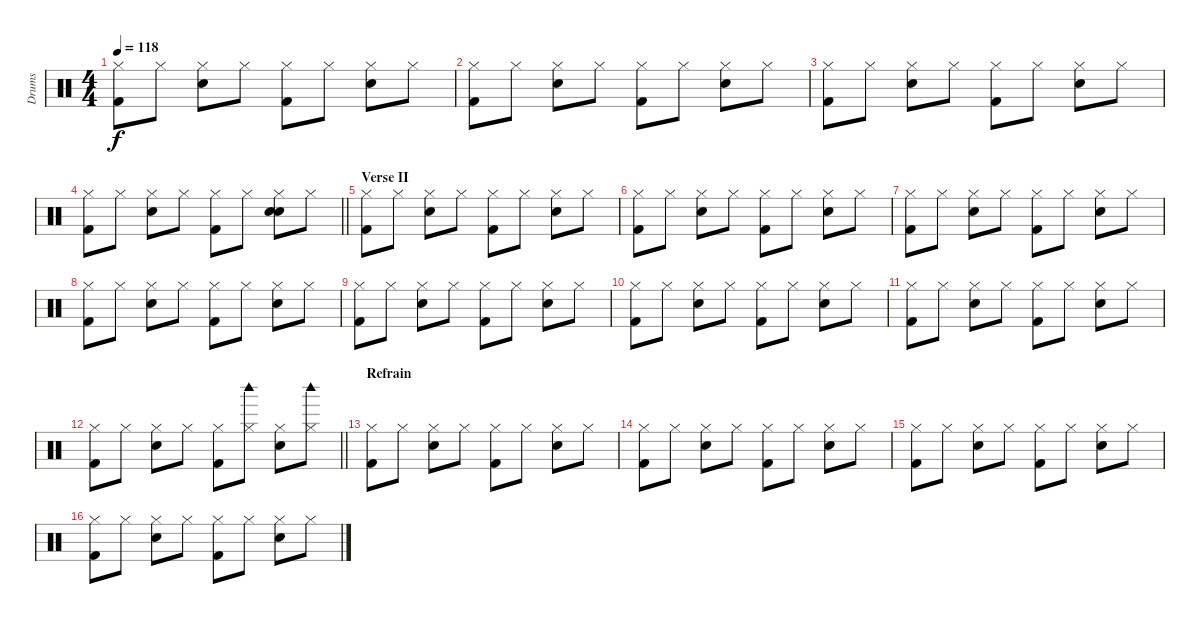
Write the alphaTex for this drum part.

\track ("Drums" "Drums") {instrument percussion}
\staff {score}
\articulation defaults
\ts (4 4)
\tempo 118
\clef neutral
\ks c
("Hi-Hat (closed)" "Kick (hit) 2").8{dy f} "Hi-Hat (closed)".8 ("Hi-Hat (closed)" "Snare (hit) 2").8 "Hi-Hat (closed)".8 ("Hi-Hat (closed)" "Kick (hit) 2").8 "Hi-Hat (closed)".8 ("Hi-Hat (closed)" "Snare (hit) 2").8 "Hi-Hat (closed)".8 |
("Hi-Hat (closed)" "Kick (hit) 2").8 "Hi-Hat (closed)".8 ("Hi-Hat (closed)" "Snare (hit) 2").8 "Hi-Hat (closed)".8 ("Hi-Hat (closed)" "Kick (hit) 2").8 "Hi-Hat (closed)".8 ("Hi-Hat (closed)" "Snare (hit) 2").8 "Hi-Hat (closed)".8 |
("Hi-Hat (closed)" "Kick (hit) 2").8 "Hi-Hat (closed)".8 ("Hi-Hat (closed)" "Snare (hit) 2").8 "Hi-Hat (closed)".8 ("Hi-Hat (closed)" "Kick (hit) 2").8 "Hi-Hat (closed)".8 ("Hi-Hat (closed)" "Snare (hit) 2").8 "Hi-Hat (closed)".8 |
\barLineRight lightlight
("Hi-Hat (closed)" "Kick (hit) 2").8 "Hi-Hat (closed)".8 ("Hi-Hat (closed)" "Snare (hit) 2").8 "Hi-Hat (closed)".8 ("Hi-Hat (closed)" "Kick (hit) 2").8 "Hi-Hat (closed)".8 ("Hi-Hat (closed)" "Hand Clap (hit)" "Snare (hit) 2").8 "Hi-Hat (closed)".8 |
\section ("" "Verse II")
("Hi-Hat (closed)" "Kick (hit) 2").8 "Hi-Hat (closed)".8 ("Hi-Hat (closed)" "Snare (hit) 2").8 "Hi-Hat (closed)".8 ("Hi-Hat (closed)" "Kick (hit) 2").8 "Hi-Hat (closed)".8 ("Hi-Hat (closed)" "Snare (hit) 2").8 "Hi-Hat (closed)".8 |
("Hi-Hat (closed)" "Kick (hit) 2").8 "Hi-Hat (closed)".8 ("Hi-Hat (closed)" "Snare (hit) 2").8 "Hi-Hat (closed)".8 ("Hi-Hat (closed)" "Kick (hit) 2").8 "Hi-Hat (closed)".8 ("Hi-Hat (closed)" "Snare (hit) 2").8 "Hi-Hat (closed)".8 |
("Hi-Hat (closed)" "Kick (hit) 2").8 "Hi-Hat (closed)".8 ("Hi-Hat (closed)" "Snare (hit) 2").8 "Hi-Hat (closed)".8 ("Hi-Hat (closed)" "Kick (hit) 2").8 "Hi-Hat (closed)".8 ("Hi-Hat (closed)" "Snare (hit) 2").8 "Hi-Hat (closed)".8 |
("Hi-Hat (closed)" "Kick (hit) 2").8 "Hi-Hat (closed)".8 ("Hi-Hat (closed)" "Snare (hit) 2").8 "Hi-Hat (closed)".8 ("Hi-Hat (closed)" "Kick (hit) 2").8 "Hi-Hat (closed)".8 ("Hi-Hat (closed)" "Snare (hit) 2").8 "Hi-Hat (closed)".8 |
("Hi-Hat (closed)" "Kick (hit) 2").8 "Hi-Hat (closed)".8 ("Hi-Hat (closed)" "Snare (hit) 2").8 "Hi-Hat (closed)".8 ("Hi-Hat (closed)" "Kick (hit) 2").8 "Hi-Hat (closed)".8 ("Hi-Hat (closed)" "Snare (hit) 2").8 "Hi-Hat (closed)".8 |
("Hi-Hat (closed)" "Kick (hit) 2").8 "Hi-Hat (closed)".8 ("Hi-Hat (closed)" "Snare (hit) 2").8 "Hi-Hat (closed)".8 ("Hi-Hat (closed)" "Kick (hit) 2").8 "Hi-Hat (closed)".8 ("Hi-Hat (closed)" "Snare (hit) 2").8 "Hi-Hat (closed)".8 |
("Hi-Hat (closed)" "Kick (hit) 2").8 "Hi-Hat (closed)".8 ("Hi-Hat (closed)" "Snare (hit) 2").8 "Hi-Hat (closed)".8 ("Hi-Hat (closed)" "Kick (hit) 2").8 "Hi-Hat (closed)".8 ("Hi-Hat (closed)" "Snare (hit) 2").8 "Hi-Hat (closed)".8 |
\barLineRight lightlight
("Hi-Hat (closed)" "Kick (hit) 2").8 "Hi-Hat (closed)".8 ("Hi-Hat (closed)" "Snare (hit) 2").8 "Hi-Hat (closed)".8 ("Hi-Hat (closed)" "Kick (hit) 2").8 ("Hi-Hat (closed)" "Woodblock high (hit)").8 ("Hi-Hat (closed)" "Snare (hit) 2").8 ("Hi-Hat (closed)" "Woodblock high (hit)").8 |
\section ("" "Refrain")
("Hi-Hat (closed)" "Kick (hit) 2").8 "Hi-Hat (closed)".8 ("Hi-Hat (closed)" "Snare (hit) 2").8 "Hi-Hat (closed)".8 ("Hi-Hat (closed)" "Kick (hit) 2").8 "Hi-Hat (closed)".8 ("Hi-Hat (closed)" "Snare (hit) 2").8 "Hi-Hat (closed)".8 |
("Hi-Hat (closed)" "Kick (hit) 2").8 "Hi-Hat (closed)".8 ("Hi-Hat (closed)" "Snare (hit) 2").8 "Hi-Hat (closed)".8 ("Hi-Hat (closed)" "Kick (hit) 2").8 "Hi-Hat (closed)".8 ("Hi-Hat (closed)" "Snare (hit) 2").8 "Hi-Hat (closed)".8 |
("Hi-Hat (closed)" "Kick (hit) 2").8 "Hi-Hat (closed)".8 ("Hi-Hat (closed)" "Snare (hit) 2").8 "Hi-Hat (closed)".8 ("Hi-Hat (closed)" "Kick (hit) 2").8 "Hi-Hat (closed)".8 ("Hi-Hat (closed)" "Snare (hit) 2").8 "Hi-Hat (closed)".8 |
("Hi-Hat (closed)" "Kick (hit) 2").8 "Hi-Hat (closed)".8 ("Hi-Hat (closed)" "Snare (hit) 2").8 "Hi-Hat (closed)".8 ("Hi-Hat (closed)" "Kick (hit) 2").8 "Hi-Hat (closed)".8 ("Hi-Hat (closed)" "Snare (hit) 2").8 "Hi-Hat (closed)".8
